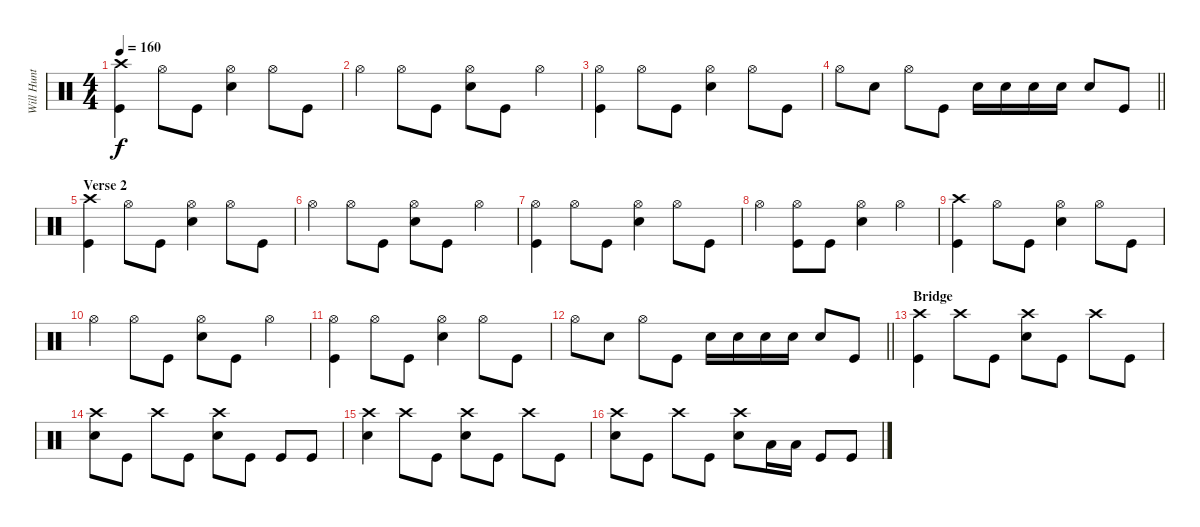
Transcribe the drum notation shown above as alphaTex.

\track ("Will Hunt" "Will Hunt") {instrument percussion}
\staff {score}
\articulation defaults
\ts (4 4)
\tempo 160
\clef neutral
\ks c
("Crash high (hit)" "Kick (hit)").4{dy f} "Hi-Hat (open)".8 "Kick (hit)".8 ("Hi-Hat (open)" "Snare (hit) 2").4 "Hi-Hat (open)".8 "Kick (hit)".8 |
"Hi-Hat (open)".4 "Hi-Hat (open)".8 "Kick (hit)".8 ("Hi-Hat (open)" "Snare (hit) 2").8 "Kick (hit)".8 "Hi-Hat (open)".4 |
("Hi-Hat (open)" "Kick (hit)").4 "Hi-Hat (open)".8 "Kick (hit)".8 ("Hi-Hat (open)" "Snare (hit) 2").4 "Hi-Hat (open)".8 "Kick (hit)".8 |
\barLineRight lightlight "Hi-Hat (open)".8 "Snare (hit) 2".8 "Hi-Hat (open)".8 "Kick (hit)".8 "Snare (hit) 2".16 "Snare (hit) 2".16 "Snare (hit) 2".16 "Snare (hit) 2".16 "Snare (hit) 2".8 "Kick (hit)".8
|
\section ("" "Verse 2")
("Crash high (hit)" "Kick (hit)").4 "Hi-Hat (open)".8 "Kick (hit)".8 ("Hi-Hat (open)" "Snare (hit) 2").4 "Hi-Hat (open)".8 "Kick (hit)".8 |
"Hi-Hat (open)".4 "Hi-Hat (open)".8 "Kick (hit)".8 ("Hi-Hat (open)" "Snare (hit) 2").8 "Kick (hit)".8 "Hi-Hat (open)".4 |
("Hi-Hat (open)" "Kick (hit)").4 "Hi-Hat (open)".8 "Kick (hit)".8 ("Hi-Hat (open)" "Snare (hit) 2").4 "Hi-Hat (open)".8 "Kick (hit)".8 |
"Hi-Hat (open)".4 ("Hi-Hat (open)" "Kick (hit)").8 "Kick (hit)".8 ("Hi-Hat (open)" "Snare (hit) 2").4 "Hi-Hat (open)".4 |
("Crash high (hit)" "Kick (hit)").4 "Hi-Hat (open)".8 "Kick (hit)".8 ("Hi-Hat (open)" "Snare (hit) 2").4 "Hi-Hat (open)".8 "Kick (hit)".8 |
"Hi-Hat (open)".4 "Hi-Hat (open)".8 "Kick (hit)".8 ("Hi-Hat (open)" "Snare (hit) 2").8 "Kick (hit)".8 "Hi-Hat (open)".4 |
("Hi-Hat (open)" "Kick (hit)").4 "Hi-Hat (open)".8 "Kick (hit)".8 ("Hi-Hat (open)" "Snare (hit) 2").4 "Hi-Hat (open)".8 "Kick (hit)".8 |
\barLineRight lightlight "Hi-Hat (open)".8 "Snare (hit) 2".8 "Hi-Hat (open)".8 "Kick (hit)".8 "Snare (hit) 2".16 "Snare (hit) 2".16 "Snare (hit) 2".16 "Snare (hit) 2".16 "Snare (hit) 2".8 "Kick (hit)".8
|
\section ("" "Bridge")
("Crash high (hit)" "Kick (hit)").4 "Crash high (hit)".8 "Kick (hit)".8 ("Crash high (hit)" "Snare (hit) 2").8 "Kick (hit)".8 "Crash high (hit)".8 "Kick (hit)".8 |
("Crash high (hit)" "Snare (hit) 2").8 "Kick (hit)".8 "Crash high (hit)".8 "Kick (hit)".8 ("Crash high (hit)" "Snare (hit) 2").8 "Kick (hit)".8 "Kick (hit)".8 "Kick (hit)".8 |
("Crash high (hit)" "Snare (hit) 2").4 "Crash high (hit)".8 "Kick (hit)".8 ("Crash high (hit)" "Snare (hit) 2").8 "Kick (hit)".8 "Crash high (hit)".8 "Kick (hit)".8 |
("Crash high (hit)" "Snare (hit) 2").8 "Kick (hit)".8 "Crash high (hit)".8 "Kick (hit)".8 ("Crash high (hit)" "Snare (hit) 2").8 "Low Floor Tom (hit)".16 "Low Floor Tom (hit)".16 "Kick (hit)".8 "Kick (hit)".8
